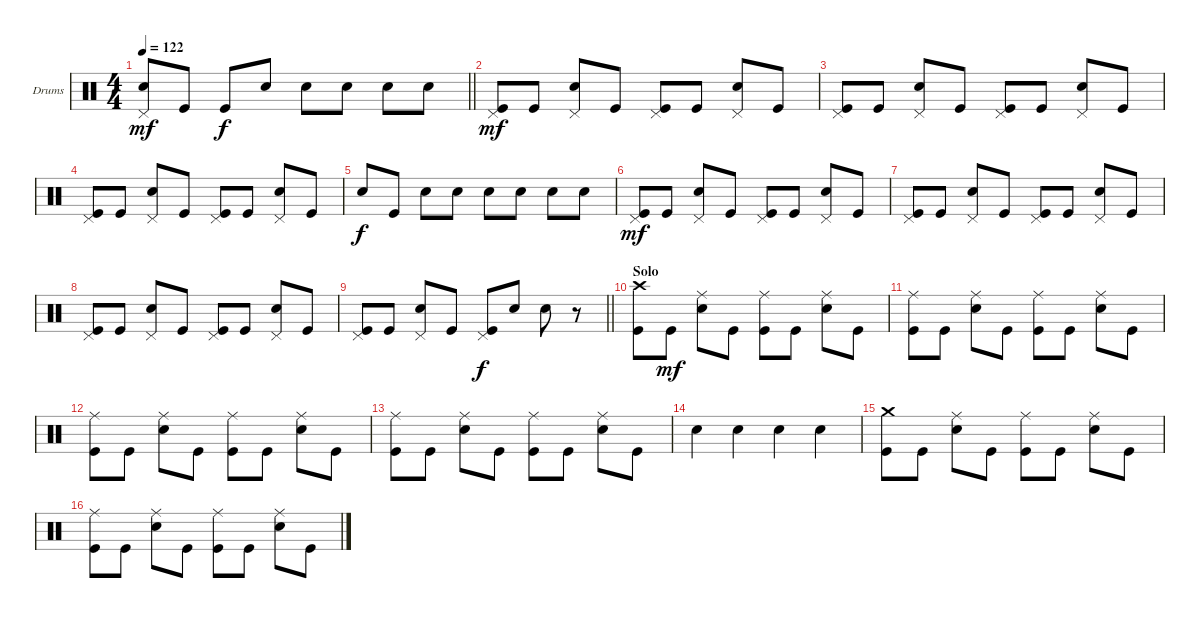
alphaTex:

\defaultSystemsLayout 4
\bracketExtendMode groupsimilarinstruments
\firstSystemTrackNameOrientation horizontal
\otherSystemsTrackNameOrientation horizontal
\track ("Drum" "Drums") {instrument percussion}
\staff {score}
\articulation defaults
\ts (4 4)
\tempo 122
\clef neutral
\barLineRight lightlight
\ks c
("Snare (hit) 2" "Pedal Hi-Hat (hit)").8{dy mf} "Kick (hit)".8 "Kick (hit)".8{dy f} "Snare (hit) 2".8 "Snare (hit) 2".8 "Snare (hit) 2".8 "Snare (hit) 2".8 "Snare (hit) 2".8 |
("Kick (hit)" "Pedal Hi-Hat (hit)").8{dy mf} "Kick (hit)".8 ("Snare (hit) 2" "Pedal Hi-Hat (hit)").8 "Kick (hit)".8 ("Kick (hit)" "Pedal Hi-Hat (hit)").8 "Kick (hit)".8 ("Snare (hit) 2" "Pedal Hi-Hat (hit)").8 "Kick (hit)".8 |
("Kick (hit)" "Pedal Hi-Hat (hit)").8 "Kick (hit)".8 ("Snare (hit) 2" "Pedal Hi-Hat (hit)").8 "Kick (hit)".8 ("Kick (hit)" "Pedal Hi-Hat (hit)").8 "Kick (hit)".8 ("Snare (hit) 2" "Pedal Hi-Hat (hit)").8 "Kick (hit)".8 |
("Kick (hit)" "Pedal Hi-Hat (hit)").8 "Kick (hit)".8 ("Snare (hit) 2" "Pedal Hi-Hat (hit)").8 "Kick (hit)".8 ("Kick (hit)" "Pedal Hi-Hat (hit)").8 "Kick (hit)".8 ("Snare (hit) 2" "Pedal Hi-Hat (hit)").8 "Kick (hit)".8 |
"Snare (hit) 2".8{dy f} "Kick (hit)".8 "Snare (hit) 2".8 "Snare (hit) 2".8 "Snare (hit) 2".8 "Snare (hit) 2".8 "Snare (hit) 2".8 "Snare (hit) 2".8 |
("Kick (hit)" "Pedal Hi-Hat (hit)").8{dy mf} "Kick (hit)".8 ("Snare (hit) 2" "Pedal Hi-Hat (hit)").8 "Kick (hit)".8 ("Kick (hit)" "Pedal Hi-Hat (hit)").8 "Kick (hit)".8 ("Snare (hit) 2" "Pedal Hi-Hat (hit)").8 "Kick (hit)".8 |
("Kick (hit)" "Pedal Hi-Hat (hit)").8 "Kick (hit)".8 ("Snare (hit) 2" "Pedal Hi-Hat (hit)").8 "Kick (hit)".8 ("Kick (hit)" "Pedal Hi-Hat (hit)").8 "Kick (hit)".8 ("Snare (hit) 2" "Pedal Hi-Hat (hit)").8 "Kick (hit)".8 |
("Kick (hit)" "Pedal Hi-Hat (hit)").8 "Kick (hit)".8 ("Snare (hit) 2" "Pedal Hi-Hat (hit)").8 "Kick (hit)".8 ("Kick (hit)" "Pedal Hi-Hat (hit)").8 "Kick (hit)".8 ("Snare (hit) 2" "Pedal Hi-Hat (hit)").8 "Kick (hit)".8 |
\barLineRight lightlight
("Kick (hit)" "Pedal Hi-Hat (hit)").8 "Kick (hit)".8 ("Snare (hit) 2" "Pedal Hi-Hat (hit)").8 "Kick (hit)".8 ("Kick (hit)" "Pedal Hi-Hat (hit)").8{dy f} "Snare (hit) 2".8 "Snare (hit) 2".8 r.8 |
\section ("" "Solo")
("Kick (hit)" "Crash high (hit)").8 "Kick (hit)".8{dy mf} ("Snare (hit) 2" "Ride (middle)").8 "Kick (hit)".8 ("Kick (hit)" "Ride (middle)").8 "Kick (hit)".8 ("Snare (hit) 2" "Ride (middle)").8 "Kick (hit)".8 |
("Kick (hit)" "Ride (middle)").8 "Kick (hit)".8 ("Snare (hit) 2" "Ride (middle)").8 "Kick (hit)".8 ("Kick (hit)" "Ride (middle)").8 "Kick (hit)".8 ("Snare (hit) 2" "Ride (middle)").8 "Kick (hit)".8 |
("Kick (hit)" "Ride (middle)").8 "Kick (hit)".8 ("Snare (hit) 2" "Ride (middle)").8 "Kick (hit)".8 ("Kick (hit)" "Ride (middle)").8 "Kick (hit)".8 ("Snare (hit) 2" "Ride (middle)").8 "Kick (hit)".8 |
("Kick (hit)" "Ride (middle)").8 "Kick (hit)".8 ("Snare (hit) 2" "Ride (middle)").8 "Kick (hit)".8 ("Kick (hit)" "Ride (middle)").8 "Kick (hit)".8 ("Snare (hit) 2" "Ride (middle)").8 "Kick (hit)".8 |
"Snare (hit) 2".4 "Snare (hit) 2".4 "Snare (hit) 2".4 "Snare (hit) 2".4 |
("Kick (hit)" "Crash medium (hit)").8 "Kick (hit)".8 ("Snare (hit) 2" "Ride (middle)").8 "Kick (hit)".8 ("Kick (hit)" "Ride (middle)").8 "Kick (hit)".8 ("Snare (hit) 2" "Ride (middle)").8 "Kick (hit)".8 |
("Kick (hit)" "Ride (middle)").8 "Kick (hit)".8 ("Snare (hit) 2" "Ride (middle)").8 "Kick (hit)".8 ("Kick (hit)" "Ride (middle)").8 "Kick (hit)".8 ("Snare (hit) 2" "Ride (middle)").8 "Kick (hit)".8
